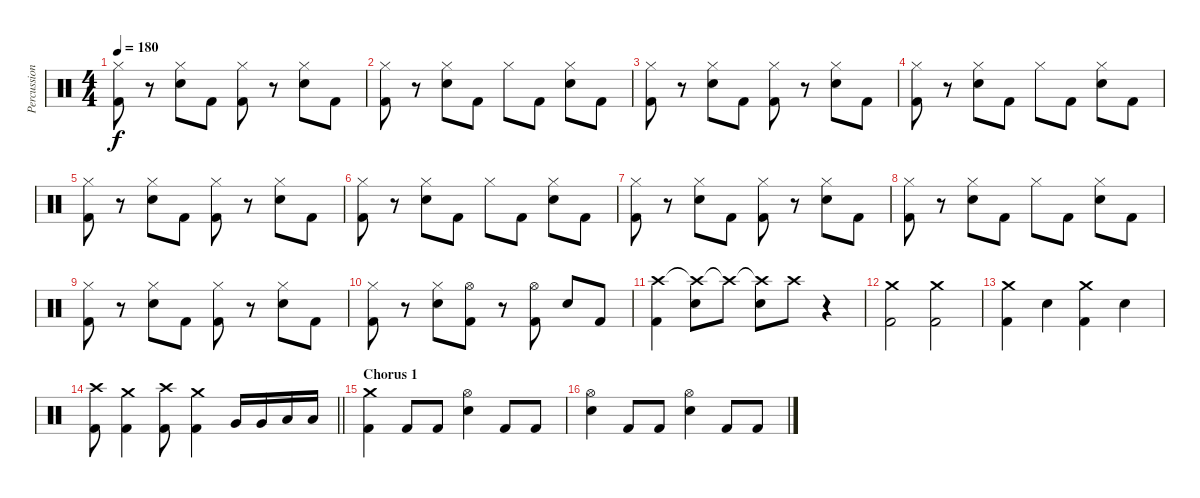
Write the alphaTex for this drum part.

\track ("Percussion" "Percussion") {instrument percussion}
\staff {score}
\articulation defaults
\ts (4 4)
\tempo 180
\clef neutral
\ks c
("Hi-Hat (closed)" "Kick (hit) 2").8{dy f} r.8 ("Hi-Hat (closed)" "Snare (hit) 2").8 "Kick (hit) 2".8 ("Hi-Hat (closed)" "Kick (hit) 2").8 r.8 ("Hi-Hat (closed)" "Snare (hit) 2").8 "Kick (hit) 2".8 |
("Hi-Hat (closed)" "Kick (hit) 2").8 r.8 ("Hi-Hat (closed)" "Snare (hit) 2").8 "Kick (hit) 2".8 "Hi-Hat (closed)".8 "Kick (hit) 2".8 ("Hi-Hat (closed)" "Snare (hit) 2").8 "Kick (hit) 2".8 |
("Hi-Hat (closed)" "Kick (hit) 2").8 r.8 ("Hi-Hat (closed)" "Snare (hit) 2").8 "Kick (hit) 2".8 ("Hi-Hat (closed)" "Kick (hit) 2").8 r.8 ("Hi-Hat (closed)" "Snare (hit) 2").8 "Kick (hit) 2".8 |
("Hi-Hat (closed)" "Kick (hit) 2").8 r.8 ("Hi-Hat (closed)" "Snare (hit) 2").8 "Kick (hit) 2".8 "Hi-Hat (closed)".8 "Kick (hit) 2".8 ("Hi-Hat (closed)" "Snare (hit) 2").8 "Kick (hit) 2".8 |
("Hi-Hat (closed)" "Kick (hit) 2").8 r.8 ("Hi-Hat (closed)" "Snare (hit) 2").8 "Kick (hit) 2".8 ("Hi-Hat (closed)" "Kick (hit) 2").8 r.8 ("Hi-Hat (closed)" "Snare (hit) 2").8 "Kick (hit) 2".8 |
("Hi-Hat (closed)" "Kick (hit) 2").8 r.8 ("Hi-Hat (closed)" "Snare (hit) 2").8 "Kick (hit) 2".8 "Hi-Hat (closed)".8 "Kick (hit) 2".8 ("Hi-Hat (closed)" "Snare (hit) 2").8 "Kick (hit) 2".8 |
("Hi-Hat (closed)" "Kick (hit) 2").8 r.8 ("Hi-Hat (closed)" "Snare (hit) 2").8 "Kick (hit) 2".8 ("Hi-Hat (closed)" "Kick (hit) 2").8 r.8 ("Hi-Hat (closed)" "Snare (hit) 2").8 "Kick (hit) 2".8 |
("Hi-Hat (closed)" "Kick (hit) 2").8 r.8 ("Hi-Hat (closed)" "Snare (hit) 2").8 "Kick (hit) 2".8 "Hi-Hat (closed)".8 "Kick (hit) 2".8 ("Hi-Hat (closed)" "Snare (hit) 2").8 "Kick (hit) 2".8 |
("Hi-Hat (closed)" "Kick (hit) 2").8 r.8 ("Hi-Hat (closed)" "Snare (hit) 2").8 "Kick (hit) 2".8 ("Hi-Hat (closed)" "Kick (hit) 2").8 r.8 ("Hi-Hat (closed)" "Snare (hit) 2").8 "Kick (hit) 2".8 |
("Hi-Hat (closed)" "Kick (hit) 2").8 r.8 ("Hi-Hat (closed)" "Snare (hit) 2").8 ("Hi-Hat (open)" "Kick (hit) 2").8 r.8 ("Hi-Hat (open)" "Kick (hit) 2").8 "Snare (hit) 2".8 "Kick (hit) 2".8 |
("Crash high (hit)" "Kick (hit) 2").4 ("Crash high (hit)"{t} "Snare (hit) 2").8 "Crash high (hit)"{t}.8 ("Crash high (hit)"{t} "Snare (hit) 2").8 "Crash high (hit)".8 r.4 |
("Crash medium (hit)" "Kick (hit) 2").2 ("Crash medium (hit)" "Kick (hit) 2").2 |
("Crash medium (hit)" "Kick (hit) 2").4 "Snare (hit) 2".4 ("Crash medium (hit)" "Kick (hit) 2").4 "Snare (hit) 2".4 |
\barLineRight lightlight
("Crash high (hit)" "Kick (hit) 2").8 ("Crash medium (hit)" "Kick (hit) 2").4 ("Crash high (hit)" "Kick (hit) 2").8 ("Crash medium (hit)" "Kick (hit) 2").4 "Very Low Tom (hit)".16 "Very Low Tom (hit)".16 "Low Floor Tom (hit)".16 "Low Floor Tom (hit)".16 |
\section ("" "Chorus 1")
("Crash medium (hit)" "Kick (hit) 2").4 "Kick (hit) 2".8 "Kick (hit) 2".8 ("Hi-Hat (open)" "Snare (hit) 2").4 "Kick (hit) 2".8 "Kick (hit) 2".8 |
("Hi-Hat (open)" "Snare (hit) 2").4 "Kick (hit) 2".8 "Kick (hit) 2".8 ("Hi-Hat (open)" "Snare (hit) 2").4 "Kick (hit) 2".8 "Kick (hit) 2".8
